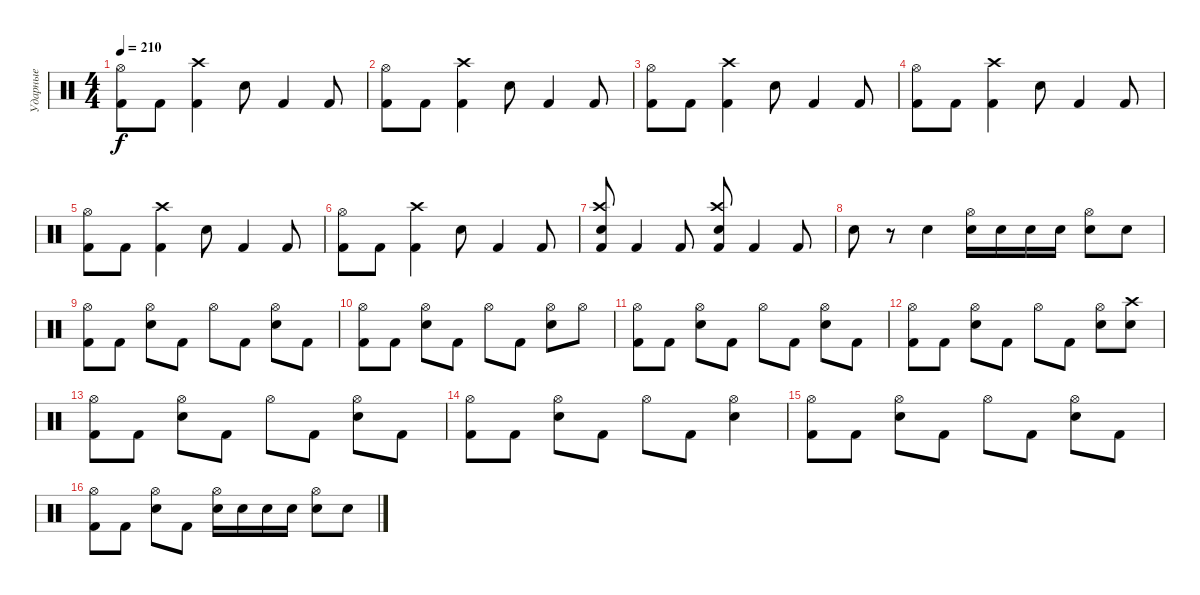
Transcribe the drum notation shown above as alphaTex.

\track ("Ударные" "Ударные") {instrument percussion}
\staff {score}
\articulation defaults
\ts (4 4)
\tempo 210
\clef neutral
\ks c
("Hi-Hat (open)" "Kick (hit) 2").8{dy f} "Kick (hit) 2".8 ("Crash high (hit)" "Kick (hit) 2").4 "Snare (hit) 2".8 "Kick (hit) 2".4 "Kick (hit) 2".8 |
("Hi-Hat (open)" "Kick (hit) 2").8 "Kick (hit) 2".8 ("Crash high (hit)" "Kick (hit) 2").4 "Snare (hit) 2".8 "Kick (hit) 2".4 "Kick (hit) 2".8 |
("Hi-Hat (open)" "Kick (hit) 2").8 "Kick (hit) 2".8 ("Crash high (hit)" "Kick (hit) 2").4 "Snare (hit) 2".8 "Kick (hit) 2".4 "Kick (hit) 2".8 |
("Hi-Hat (open)" "Kick (hit) 2").8 "Kick (hit) 2".8 ("Crash high (hit)" "Kick (hit) 2").4 "Snare (hit) 2".8 "Kick (hit) 2".4 "Kick (hit) 2".8 |
("Hi-Hat (open)" "Kick (hit) 2").8 "Kick (hit) 2".8 ("Crash high (hit)" "Kick (hit) 2").4 "Snare (hit) 2".8 "Kick (hit) 2".4 "Kick (hit) 2".8 |
("Hi-Hat (open)" "Kick (hit) 2").8 "Kick (hit) 2".8 ("Crash high (hit)" "Kick (hit) 2").4 "Snare (hit) 2".8 "Kick (hit) 2".4 "Kick (hit) 2".8 |
("Crash high (hit)" "Snare (hit) 2" "Kick (hit) 2").8 "Kick (hit) 2".4 "Kick (hit) 2".8 ("Crash high (hit)" "Snare (hit) 2" "Kick (hit) 2").8 "Kick (hit) 2".4 "Kick (hit) 2".8 |
"Snare (hit) 2".8 r.8 "Snare (hit) 2".4 ("Hi-Hat (open)" "Snare (hit) 2").16 "Snare (hit) 2".16 "Snare (hit) 2".16 "Snare (hit) 2".16 ("Hi-Hat (open)" "Snare (hit) 2").8 "Snare (hit) 2".8 |
("Hi-Hat (open)" "Kick (hit) 2").8 "Kick (hit) 2".8 ("Hi-Hat (open)" "Snare (hit) 2").8 "Kick (hit) 2".8 "Hi-Hat (open)".8 "Kick (hit) 2".8 ("Hi-Hat (open)" "Snare (hit) 2").8 "Kick (hit) 2".8 |
("Hi-Hat (open)" "Kick (hit) 2").8 "Kick (hit) 2".8 ("Hi-Hat (open)" "Snare (hit) 2").8 "Kick (hit) 2".8 "Hi-Hat (open)".8 "Kick (hit) 2".8 ("Hi-Hat (open)" "Snare (hit) 2").8 "Hi-Hat (open)".8 |
("Hi-Hat (open)" "Kick (hit) 2").8 "Kick (hit) 2".8 ("Hi-Hat (open)" "Snare (hit) 2").8 "Kick (hit) 2".8 "Hi-Hat (open)".8 "Kick (hit) 2".8 ("Hi-Hat (open)" "Snare (hit) 2").8 "Kick (hit) 2".8 |
("Hi-Hat (open)" "Kick (hit) 2").8 "Kick (hit) 2".8 ("Hi-Hat (open)" "Snare (hit) 2").8 "Kick (hit) 2".8 "Hi-Hat (open)".8 "Kick (hit) 2".8 ("Hi-Hat (open)" "Snare (hit) 2").8 ("Crash high (hit)" "Snare (hit) 2").8 |
("Hi-Hat (open)" "Kick (hit) 2").8 "Kick (hit) 2".8 ("Hi-Hat (open)" "Snare (hit) 2").8 "Kick (hit) 2".8 "Hi-Hat (open)".8 "Kick (hit) 2".8 ("Hi-Hat (open)" "Snare (hit) 2").8 "Kick (hit) 2".8 |
("Hi-Hat (open)" "Kick (hit) 2").8 "Kick (hit) 2".8 ("Hi-Hat (open)" "Snare (hit) 2").8 "Kick (hit) 2".8 "Hi-Hat (open)".8 "Kick (hit) 2".8 ("Hi-Hat (open)" "Snare (hit) 2").4 |
("Hi-Hat (open)" "Kick (hit) 2").8 "Kick (hit) 2".8 ("Hi-Hat (open)" "Snare (hit) 2").8 "Kick (hit) 2".8 "Hi-Hat (open)".8 "Kick (hit) 2".8 ("Hi-Hat (open)" "Snare (hit) 2").8 "Kick (hit) 2".8 |
("Hi-Hat (open)" "Kick (hit) 2").8 "Kick (hit) 2".8 ("Hi-Hat (open)" "Snare (hit) 2").8 "Kick (hit) 2".8 ("Hi-Hat (open)" "Snare (hit) 2").16 "Snare (hit) 2".16 "Snare (hit) 2".16 "Snare (hit) 2".16 ("Hi-Hat (open)" "Snare (hit) 2").8 "Snare (hit) 2".8
